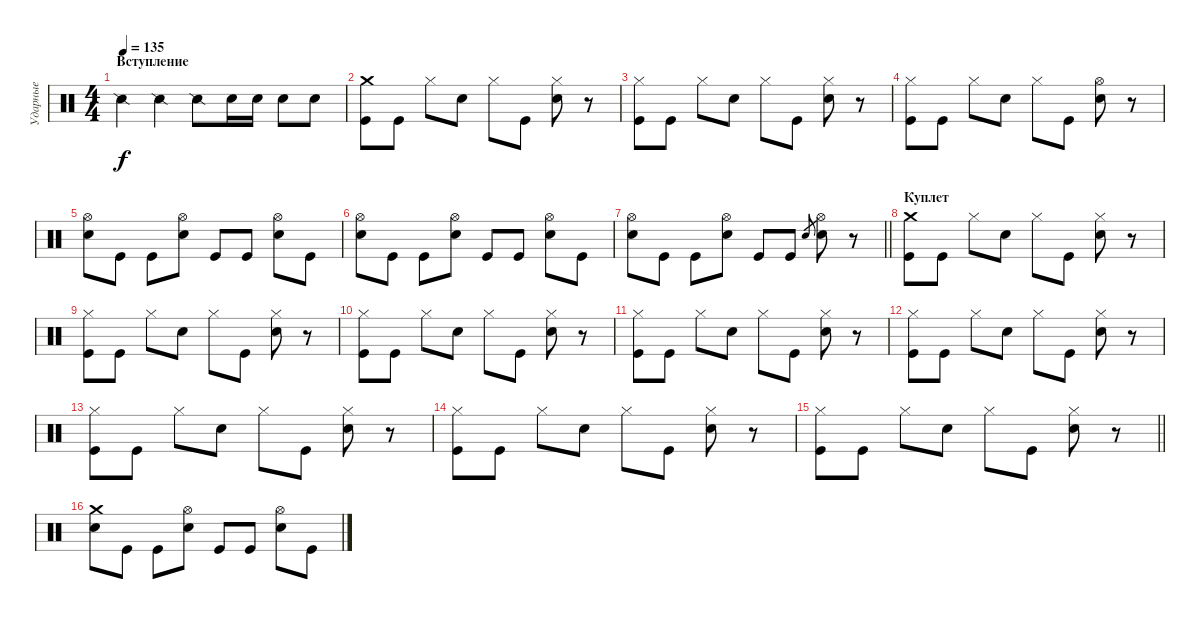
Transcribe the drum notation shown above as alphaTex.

\track ("Ударные" "Ударные") {instrument percussion}
\staff {score}
\articulation defaults
\ts (4 4)
\section ("" "Вступление")
\tempo 135
\clef neutral
\ks c "Snare (side stick) 2".4{dy f} "Snare (side stick) 2".4 "Snare (side stick) 2".8 "Electric Snare (hit)".16 "Electric Snare (hit)".16 "Electric Snare (hit)".8 "Electric Snare (hit)".8
|
("Crash medium (hit)" "Kick (hit)").8 "Kick (hit)".8 "Hi-Hat (closed)".8 "Electric Snare (hit)".8 "Hi-Hat (closed)".8 "Kick (hit)".8 ("Hi-Hat (closed)" "Electric Snare (hit)").8 r.8 |
("Hi-Hat (closed)" "Kick (hit)").8 "Kick (hit)".8 "Hi-Hat (closed)".8 "Electric Snare (hit)".8 "Hi-Hat (closed)".8 "Kick (hit)".8 ("Hi-Hat (closed)" "Electric Snare (hit)").8 r.8 |
("Hi-Hat (closed)" "Kick (hit)").8 "Kick (hit)".8 "Hi-Hat (closed)".8 "Electric Snare (hit)".8 "Hi-Hat (closed)".8 "Kick (hit)".8 ("Hi-Hat (open)" "Electric Snare (hit)").8 r.8 |
("Hi-Hat (open)" "Electric Snare (hit)").8 "Kick (hit)".8 "Kick (hit)".8 ("Hi-Hat (open)" "Electric Snare (hit)").8 "Kick (hit)".8 "Kick (hit)".8 ("Hi-Hat (open)" "Electric Snare (hit)").8 "Kick (hit)".8 |
("Hi-Hat (open)" "Electric Snare (hit)").8 "Kick (hit)".8 "Kick (hit)".8 ("Hi-Hat (open)" "Electric Snare (hit)").8 "Kick (hit)".8 "Kick (hit)".8 ("Hi-Hat (open)" "Electric Snare (hit)").8 "Kick (hit)".8 |
\barLineRight lightlight
("Hi-Hat (open)" "Electric Snare (hit)").8 "Kick (hit)".8 "Kick (hit)".8 ("Hi-Hat (open)" "Electric Snare (hit)").8 "Kick (hit)".8 "Kick (hit)".8 "Electric Snare (hit)".8{gr} ("Hi-Hat (open)" "Electric Snare (hit)").8 r.8 |
\section ("" "Куплет")
("Crash medium (hit)" "Kick (hit)").8 "Kick (hit)".8 "Hi-Hat (closed)".8 "Electric Snare (hit)".8 "Hi-Hat (closed)".8 "Kick (hit)".8 ("Hi-Hat (closed)" "Electric Snare (hit)").8 r.8 |
("Hi-Hat (closed)" "Kick (hit)").8 "Kick (hit)".8 "Hi-Hat (closed)".8 "Electric Snare (hit)".8 "Hi-Hat (closed)".8 "Kick (hit)".8 ("Hi-Hat (closed)" "Electric Snare (hit)").8 r.8 |
("Hi-Hat (closed)" "Kick (hit)").8 "Kick (hit)".8 "Hi-Hat (closed)".8 "Electric Snare (hit)".8 "Hi-Hat (closed)".8 "Kick (hit)".8 ("Hi-Hat (closed)" "Electric Snare (hit)").8 r.8 |
("Hi-Hat (closed)" "Kick (hit)").8 "Kick (hit)".8 "Hi-Hat (closed)".8 "Electric Snare (hit)".8 "Hi-Hat (closed)".8 "Kick (hit)".8 ("Hi-Hat (closed)" "Electric Snare (hit)").8 r.8 |
("Hi-Hat (closed)" "Kick (hit)").8 "Kick (hit)".8 "Hi-Hat (closed)".8 "Electric Snare (hit)".8 "Hi-Hat (closed)".8 "Kick (hit)".8 ("Hi-Hat (closed)" "Electric Snare (hit)").8 r.8 |
("Hi-Hat (closed)" "Kick (hit)").8 "Kick (hit)".8 "Hi-Hat (closed)".8 "Electric Snare (hit)".8 "Hi-Hat (closed)".8 "Kick (hit)".8 ("Hi-Hat (closed)" "Electric Snare (hit)").8 r.8 |
("Hi-Hat (closed)" "Kick (hit)").8 "Kick (hit)".8 "Hi-Hat (closed)".8 "Electric Snare (hit)".8 "Hi-Hat (closed)".8 "Kick (hit)".8 ("Hi-Hat (closed)" "Electric Snare (hit)").8 r.8 |
\barLineRight lightlight
("Hi-Hat (closed)" "Kick (hit)").8 "Kick (hit)".8 "Hi-Hat (closed)".8 "Electric Snare (hit)".8 "Hi-Hat (closed)".8 "Kick (hit)".8 ("Hi-Hat (closed)" "Electric Snare (hit)").8 r.8 |
\section ("" " ")
("Crash medium (hit)" "Electric Snare (hit)").8 "Kick (hit)".8 "Kick (hit)".8 ("Hi-Hat (open)" "Electric Snare (hit)").8 "Kick (hit)".8 "Kick (hit)".8 ("Hi-Hat (open)" "Electric Snare (hit)").8 "Kick (hit)".8
